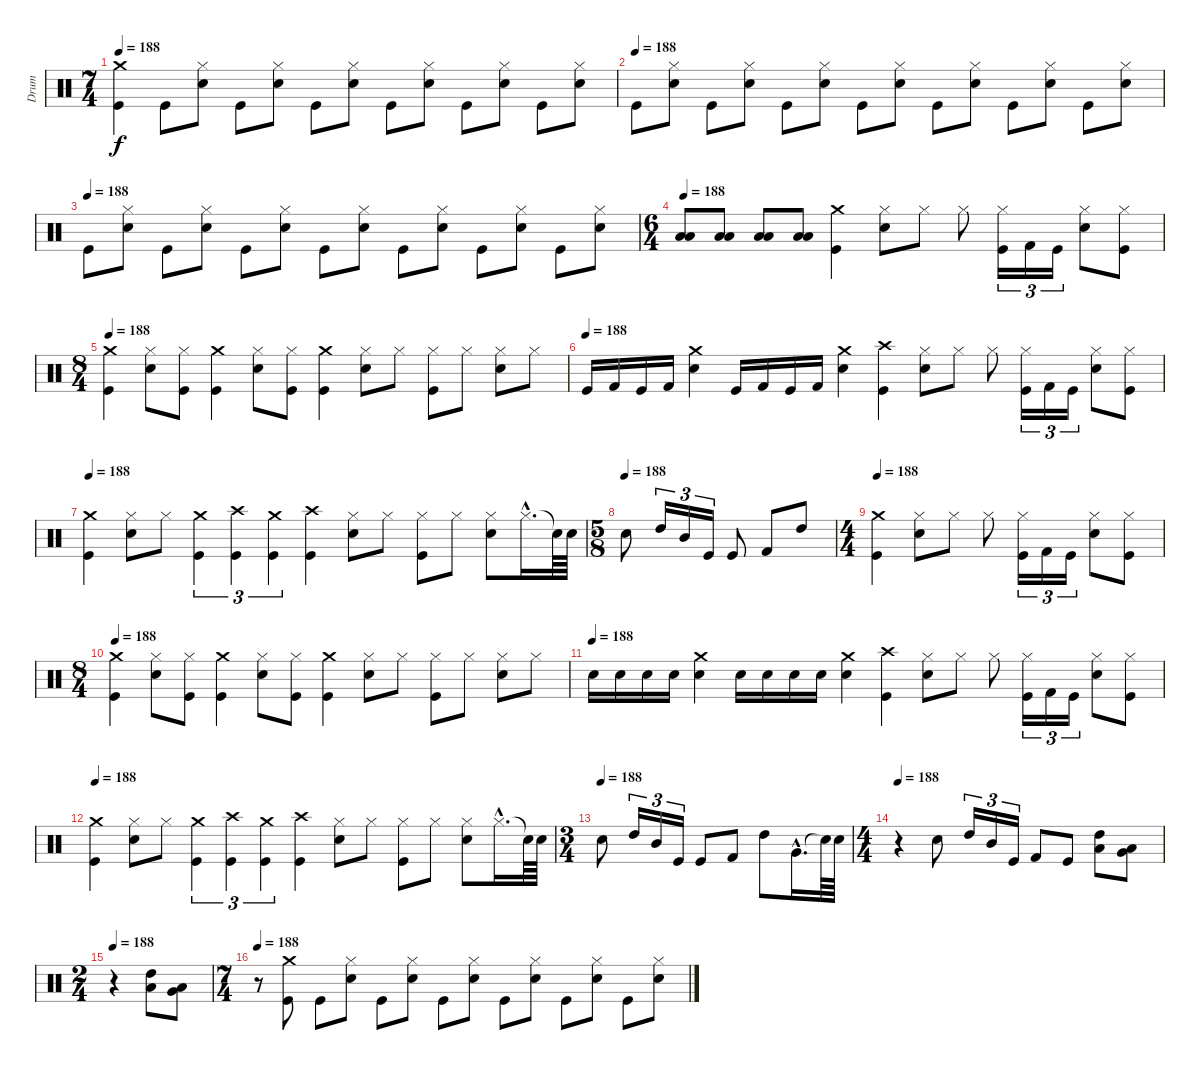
\track ("Drum" "Drum") {instrument percussion}
\staff {score}
\articulation defaults
\ts (7 4)
\tempo 188
\clef neutral
\ks c
("Crash medium (hit)" "Kick (hit)").4{dy f} "Kick (hit)".8 ("Hi-Hat (closed)" "Snare (hit) 2").8 "Kick (hit)".8 ("Hi-Hat (closed)" "Snare (hit) 2").8 "Kick (hit)".8 ("Hi-Hat (closed)" "Snare (hit) 2").8 "Kick (hit)".8 ("Hi-Hat (closed)" "Snare (hit) 2").8 "Kick (hit)".8 ("Hi-Hat (closed)" "Snare (hit) 2").8 "Kick (hit)".8 ("Hi-Hat (closed)" "Snare (hit) 2").8 |
\tempo (188)
"Kick (hit)".8 ("Hi-Hat (closed)" "Snare (hit) 2").8 "Kick (hit)".8 ("Hi-Hat (closed)" "Snare (hit) 2").8 "Kick (hit)".8 ("Hi-Hat (closed)" "Snare (hit) 2").8 "Kick (hit)".8 ("Hi-Hat (closed)" "Snare (hit) 2").8 "Kick (hit)".8 ("Hi-Hat (closed)" "Snare (hit) 2").8 "Kick (hit)".8 ("Hi-Hat (closed)" "Snare (hit) 2").8 "Kick (hit)".8 ("Hi-Hat (closed)" "Snare (hit) 2").8 |
\tempo (188)
"Kick (hit)".8 ("Hi-Hat (closed)" "Snare (hit) 2").8 "Kick (hit)".8 ("Hi-Hat (closed)" "Snare (hit) 2").8 "Kick (hit)".8 ("Hi-Hat (closed)" "Snare (hit) 2").8 "Kick (hit)".8 ("Hi-Hat (closed)" "Snare (hit) 2").8 "Kick (hit)".8 ("Hi-Hat (closed)" "Snare (hit) 2").8 "Kick (hit)".8 ("Hi-Hat (closed)" "Snare (hit) 2").8 "Kick (hit)".8 ("Hi-Hat (closed)" "Snare (hit) 2").8 |
\ts (6 4)
\tempo 188
("Low Tom (hit)" "Low Floor Tom (hit)").8 ("Low Tom (hit)" "Low Floor Tom (hit)").8 ("Low Tom (hit)" "Low Floor Tom (hit)").8 ("Low Tom (hit)" "Low Floor Tom (hit)").8 ("Crash medium (hit)" "Kick (hit)").4 ("Hi-Hat (closed)" "Snare (hit) 2").8 "Hi-Hat (closed)".8 "Hi-Hat (closed)".8 ("Hi-Hat (closed)" "Kick (hit)").16{tu (3 2)} "Kick (hit) 2".16{tu (3 2)} "Kick (hit)".16{tu (3 2)} ("Hi-Hat (closed)" "Snare (hit) 2").8 ("Hi-Hat (closed)" "Kick (hit)").8 |
\ts (8 4)
\tempo 188
("Crash medium (hit)" "Kick (hit)").4 ("Hi-Hat (closed)" "Snare (hit) 2").8 ("Hi-Hat (closed)" "Kick (hit)").8 ("Crash medium (hit)" "Kick (hit)").4 ("Hi-Hat (closed)" "Snare (hit) 2").8 ("Hi-Hat (closed)" "Kick (hit)").8 ("Crash medium (hit)" "Kick (hit)").4 ("Hi-Hat (closed)" "Snare (hit) 2").8 "Hi-Hat (closed)".8 ("Hi-Hat (closed)" "Kick (hit)").8 "Hi-Hat (closed)".8 ("Hi-Hat (closed)" "Snare (hit) 2").8 "Hi-Hat (closed)".8 |
\tempo (188)
"Kick (hit)".16 "Kick (hit) 2".16 "Kick (hit)".16 "Kick (hit) 2".16 ("Crash medium (hit)" "Snare (hit) 2").4 "Kick (hit)".16 "Kick (hit) 2".16 "Kick (hit)".16 "Kick (hit) 2".16 ("Crash medium (hit)" "Snare (hit) 2").4 ("Crash high (hit)" "Kick (hit)").4 ("Hi-Hat (closed)" "Snare (hit) 2").8 "Hi-Hat (closed)".8 "Hi-Hat (closed)".8 ("Hi-Hat (closed)" "Kick (hit)").16{tu (3 2)} "Kick (hit) 2".16{tu (3 2)} "Kick (hit)".16{tu (3 2)} ("Hi-Hat (closed)" "Snare (hit) 2").8 ("Hi-Hat (closed)" "Kick (hit)").8 |
\tempo 188
("Crash medium (hit)" "Kick (hit)").4 ("Hi-Hat (closed)" "Snare (hit) 2").8 "Hi-Hat (closed)".8 ("Crash medium (hit)" "Kick (hit)").4{tu (3 2)} ("Crash high (hit)" "Kick (hit)").4{tu (3 2)} ("Crash medium (hit)" "Kick (hit)").4{tu (3 2)} ("Crash high (hit)" "Kick (hit)").4 ("Hi-Hat (closed)" "Snare (hit) 2").8 "Hi-Hat (closed)".8 ("Hi-Hat (closed)" "Kick (hit)").8 "Hi-Hat (closed)".8 ("Hi-Hat (closed)" "Snare (hit) 2").8 "Hi-Hat (closed)"{hac}.16{d} "Snare (hit)"{t}.64 "Snare (hit) 2".64 |
\ts (5 8)
\tempo (188)
"Snare (hit) 2".8 "High Tom (hit)".16{tu (3 2)} "Mid Tom (hit)".16{tu (3 2)} "Kick (hit)".16{tu (3 2)} "Kick (hit)".8 "Kick (hit) 2".8 "High Tom (hit)".8 |
\ts (4 4)
\tempo 188
("Crash medium (hit)" "Kick (hit)").4 ("Hi-Hat (closed)" "Snare (hit) 2").8 "Hi-Hat (closed)".8 "Hi-Hat (closed)".8 ("Hi-Hat (closed)" "Kick (hit)").16{tu (3 2)} "Kick (hit) 2".16{tu (3 2)} "Kick (hit)".16{tu (3 2)} ("Hi-Hat (closed)" "Snare (hit) 2").8 ("Hi-Hat (closed)" "Kick (hit)").8 |
\ts (8 4)
\tempo 188
("Crash medium (hit)" "Kick (hit)").4 ("Hi-Hat (closed)" "Snare (hit) 2").8 ("Hi-Hat (closed)" "Kick (hit)").8 ("Crash medium (hit)" "Kick (hit)").4 ("Hi-Hat (closed)" "Snare (hit) 2").8 ("Hi-Hat (closed)" "Kick (hit)").8 ("Crash medium (hit)" "Kick (hit)").4 ("Hi-Hat (closed)" "Snare (hit) 2").8 "Hi-Hat (closed)".8 ("Hi-Hat (closed)" "Kick (hit)").8 "Hi-Hat (closed)".8 ("Hi-Hat (closed)" "Snare (hit) 2").8 "Hi-Hat (closed)".8 |
\tempo (188)
"Snare (hit) 2".16 "Snare (hit) 2".16 "Snare (hit) 2".16 "Snare (hit) 2".16 ("Crash medium (hit)" "Snare (hit) 2").4 "Snare (hit) 2".16 "Snare (hit) 2".16 "Snare (hit) 2".16 "Snare (hit) 2".16 ("Crash medium (hit)" "Snare (hit) 2").4 ("Crash high (hit)" "Kick (hit)").4 ("Hi-Hat (closed)" "Snare (hit) 2").8 "Hi-Hat (closed)".8 "Hi-Hat (closed)".8 ("Hi-Hat (closed)" "Kick (hit)").16{tu (3 2)} "Kick (hit) 2".16{tu (3 2)} "Kick (hit)".16{tu (3 2)} ("Hi-Hat (closed)" "Snare (hit) 2").8 ("Hi-Hat (closed)" "Kick (hit)").8 |
\tempo 188
("Crash medium (hit)" "Kick (hit)").4 ("Hi-Hat (closed)" "Snare (hit) 2").8 "Hi-Hat (closed)".8 ("Crash medium (hit)" "Kick (hit)").4{tu (3 2)} ("Crash high (hit)" "Kick (hit)").4{tu (3 2)} ("Crash medium (hit)" "Kick (hit)").4{tu (3 2)} ("Crash high (hit)" "Kick (hit)").4 ("Hi-Hat (closed)" "Snare (hit) 2").8 "Hi-Hat (closed)".8 ("Hi-Hat (closed)" "Kick (hit)").8 "Hi-Hat (closed)".8 ("Hi-Hat (closed)" "Snare (hit) 2").8 "Hi-Hat (closed)"{hac}.16{d} "Snare (hit)"{t}.64 "Snare (hit) 2".64 |
\ts (3 4)
\tempo (188)
"Snare (hit) 2".8 "High Tom (hit)".16{tu (3 2)} "Mid Tom (hit)".16{tu (3 2)} "Kick (hit)".16{tu (3 2)} "Kick (hit)".8 "Kick (hit) 2".8 "High Tom (hit)".8 "Very Low Tom (hit)"{hac}.16{d} "Snare (hit)"{t}.64 "Snare (hit) 2".64 |
\ts (4 4)
\tempo 188
r.4 "Snare (hit) 2".8 "High Tom (hit)".16{tu (3 2)} "Mid Tom (hit)".16{tu (3 2)} "Kick (hit)".16{tu (3 2)} "Kick (hit) 2".8 "Kick (hit)".8 ("High Tom (hit)" "Low Floor Tom (hit)").8 ("Very Low Tom (hit)" "Low Floor Tom (hit)").8 |
\ts (2 4)
\tempo 188
r.4 ("High Tom (hit)" "Low Floor Tom (hit)").8 ("Very Low Tom (hit)" "Low Floor Tom (hit)").8 |
\ts (7 4)
\tempo 188
r.8 ("Crash medium (hit)" "Kick (hit)").8 "Kick (hit)".8 ("Hi-Hat (closed)" "Snare (hit) 2").8 "Kick (hit)".8 ("Hi-Hat (closed)" "Snare (hit) 2").8 "Kick (hit)".8 ("Hi-Hat (closed)" "Snare (hit) 2").8 "Kick (hit)".8 ("Hi-Hat (closed)" "Snare (hit) 2").8 "Kick (hit)".8 ("Hi-Hat (closed)" "Snare (hit) 2").8 "Kick (hit)".8 ("Hi-Hat (closed)" "Snare (hit) 2").8
